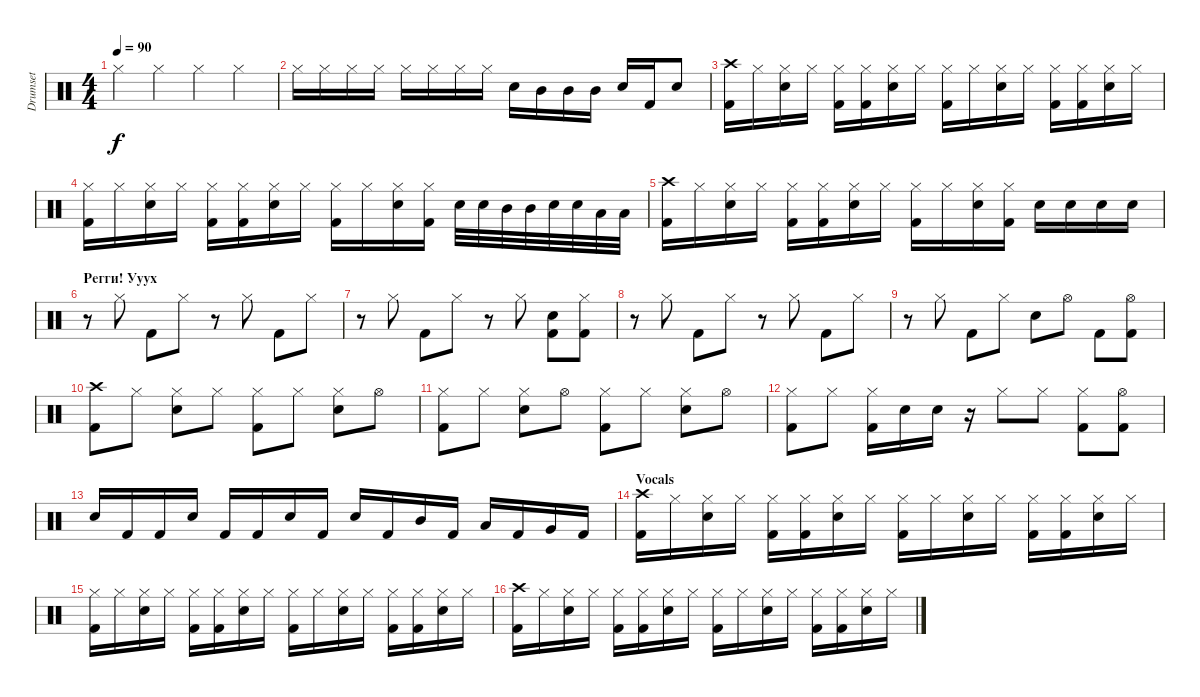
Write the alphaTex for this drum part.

\track ("Drumset" "Drumset") {instrument percussion}
\staff {score}
\articulation defaults
\ts (4 4)
\tempo 90
\clef neutral
\ks c "Hi-Hat (closed)".4{dy f} "Hi-Hat (closed)".4 "Hi-Hat (closed)".4 "Hi-Hat (closed)".4
|
"Hi-Hat (closed)".16 "Hi-Hat (closed)".16 "Hi-Hat (closed)".16 "Hi-Hat (closed)".16 "Hi-Hat (closed)".16 "Hi-Hat (closed)".16 "Hi-Hat (closed)".16 "Hi-Hat (closed)".16 "Electric Snare (hit)".16 "Mid Tom (hit)".16 "Mid Tom (hit)".16 "Mid Tom (hit)".16 "Electric Snare (hit)".16 "Kick (hit) 2".16 "Electric Snare (hit)".8 |
("Crash high (hit)" "Kick (hit) 2").16 "Hi-Hat (closed)".16 ("Hi-Hat (closed)" "Electric Snare (hit)").16 "Hi-Hat (closed)".16 ("Hi-Hat (closed)" "Kick (hit) 2").16 ("Hi-Hat (closed)" "Kick (hit) 2").16 ("Hi-Hat (closed)" "Electric Snare (hit)").16 "Hi-Hat (closed)".16 ("Hi-Hat (closed)" "Kick (hit) 2").16 "Hi-Hat (closed)".16 ("Hi-Hat (closed)" "Electric Snare (hit)").16 "Hi-Hat (closed)".16 ("Hi-Hat (closed)" "Kick (hit) 2").16 ("Hi-Hat (closed)" "Kick (hit) 2").16 ("Hi-Hat (closed)" "Electric Snare (hit)").16 "Hi-Hat (closed)".16 |
("Hi-Hat (closed)" "Kick (hit) 2").16 "Hi-Hat (closed)".16 ("Hi-Hat (closed)" "Electric Snare (hit)").16 "Hi-Hat (closed)".16 ("Hi-Hat (closed)" "Kick (hit) 2").16 ("Hi-Hat (closed)" "Kick (hit) 2").16 ("Hi-Hat (closed)" "Electric Snare (hit)").16 "Hi-Hat (closed)".16 ("Hi-Hat (closed)" "Kick (hit) 2").16 "Hi-Hat (closed)".16 ("Hi-Hat (closed)" "Electric Snare (hit)").16 ("Hi-Hat (closed)" "Kick (hit) 2").16 "Electric Snare (hit)".32 "Electric Snare (hit)".32 "Mid Tom (hit)".32 "Mid Tom (hit)".32 "Electric Snare (hit)".32 "Electric Snare (hit)".32 "Low Tom (hit)".32 "Low Tom (hit)".32 |
("Crash high (hit)" "Kick (hit) 2").16 "Hi-Hat (closed)".16 ("Hi-Hat (closed)" "Electric Snare (hit)").16 "Hi-Hat (closed)".16 ("Hi-Hat (closed)" "Kick (hit) 2").16 ("Hi-Hat (closed)" "Kick (hit) 2").16 ("Hi-Hat (closed)" "Electric Snare (hit)").16 "Hi-Hat (closed)".16 ("Hi-Hat (closed)" "Kick (hit) 2").16 "Hi-Hat (closed)".16 ("Hi-Hat (closed)" "Electric Snare (hit)").16 ("Hi-Hat (closed)" "Kick (hit) 2").16 "Electric Snare (hit)".16 "Electric Snare (hit)".16 "Electric Snare (hit)".16 "Electric Snare (hit)".16 |
\section ("" "Регги! Ууух")
r.8 "Hi-Hat (closed)".8 "Kick (hit) 2".8 "Hi-Hat (closed)".8 r.8 "Hi-Hat (closed)".8 "Kick (hit) 2".8 "Hi-Hat (closed)".8 |
r.8 "Hi-Hat (closed)".8 "Kick (hit) 2".8 "Hi-Hat (closed)".8 r.8 "Hi-Hat (closed)".8 ("Electric Snare (hit)" "Kick (hit) 2").8 ("Hi-Hat (closed)" "Kick (hit) 2").8 |
r.8 "Hi-Hat (closed)".8 "Kick (hit) 2".8 "Hi-Hat (closed)".8 r.8 "Hi-Hat (closed)".8 "Kick (hit) 2".8 "Hi-Hat (closed)".8 |
r.8 "Hi-Hat (closed)".8 "Kick (hit) 2".8 "Hi-Hat (closed)".8 "Electric Snare (hit)".8 "Hi-Hat (open)".8 "Kick (hit) 2".8 ("Hi-Hat (open)" "Kick (hit) 2").8 |
("Crash high (hit)" "Kick (hit) 2").8 "Hi-Hat (closed)".8 ("Hi-Hat (closed)" "Electric Snare (hit)").8 "Hi-Hat (closed)".8 ("Hi-Hat (closed)" "Kick (hit) 2").8 "Hi-Hat (closed)".8 ("Hi-Hat (closed)" "Electric Snare (hit)").8 "Hi-Hat (open)".8 |
("Hi-Hat (closed)" "Kick (hit) 2").8 "Hi-Hat (closed)".8 ("Hi-Hat (closed)" "Electric Snare (hit)").8 "Hi-Hat (open)".8 ("Hi-Hat (closed)" "Kick (hit) 2").8 "Hi-Hat (closed)".8 ("Hi-Hat (closed)" "Electric Snare (hit)").8 "Hi-Hat (open)".8 |
("Hi-Hat (closed)" "Kick (hit) 2").8 "Hi-Hat (closed)".8 ("Hi-Hat (closed)" "Kick (hit) 2").16 "Electric Snare (hit)".16 "Electric Snare (hit)".16 r.16 "Hi-Hat (closed)".8 "Hi-Hat (closed)".8 ("Hi-Hat (closed)" "Kick (hit) 2").8 ("Hi-Hat (open)" "Kick (hit) 2").8 |
"Electric Snare (hit)".16 "Kick (hit) 2".16 "Kick (hit) 2".16 "Electric Snare (hit)".16 "Kick (hit) 2".16 "Kick (hit) 2".16 "Electric Snare (hit)".16 "Kick (hit) 2".16 "Electric Snare (hit)".16 "Kick (hit) 2".16 "Mid Tom (hit)".16 "Kick (hit) 2".16 "Low Tom (hit)".16 "Kick (hit) 2".16 "Very Low Tom (hit)".16 "Kick (hit) 2".16 |
\section ("" "Vocals")
("Crash high (hit)" "Kick (hit) 2").16 "Hi-Hat (closed)".16 ("Hi-Hat (closed)" "Electric Snare (hit)").16 "Hi-Hat (closed)".16 ("Hi-Hat (closed)" "Kick (hit) 2").16 ("Hi-Hat (closed)" "Kick (hit) 2").16 ("Hi-Hat (closed)" "Electric Snare (hit)").16 "Hi-Hat (closed)".16 ("Hi-Hat (closed)" "Kick (hit) 2").16 "Hi-Hat (closed)".16 ("Hi-Hat (closed)" "Electric Snare (hit)").16 "Hi-Hat (closed)".16 ("Hi-Hat (closed)" "Kick (hit) 2").16 ("Hi-Hat (closed)" "Kick (hit) 2").16 ("Hi-Hat (closed)" "Electric Snare (hit)").16 "Hi-Hat (closed)".16 |
("Hi-Hat (closed)" "Kick (hit) 2").16 "Hi-Hat (closed)".16 ("Hi-Hat (closed)" "Electric Snare (hit)").16 "Hi-Hat (closed)".16 ("Hi-Hat (closed)" "Kick (hit) 2").16 ("Hi-Hat (closed)" "Kick (hit) 2").16 ("Hi-Hat (closed)" "Electric Snare (hit)").16 "Hi-Hat (closed)".16 ("Hi-Hat (closed)" "Kick (hit) 2").16 "Hi-Hat (closed)".16 ("Hi-Hat (closed)" "Electric Snare (hit)").16 "Hi-Hat (closed)".16 ("Hi-Hat (closed)" "Kick (hit) 2").16 ("Hi-Hat (closed)" "Kick (hit) 2").16 ("Hi-Hat (closed)" "Electric Snare (hit)").16 "Hi-Hat (closed)".16 |
("Crash high (hit)" "Kick (hit) 2").16 "Hi-Hat (closed)".16 ("Hi-Hat (closed)" "Electric Snare (hit)").16 "Hi-Hat (closed)".16 ("Hi-Hat (closed)" "Kick (hit) 2").16 ("Hi-Hat (closed)" "Kick (hit) 2").16 ("Hi-Hat (closed)" "Electric Snare (hit)").16 "Hi-Hat (closed)".16 ("Hi-Hat (closed)" "Kick (hit) 2").16 "Hi-Hat (closed)".16 ("Hi-Hat (closed)" "Electric Snare (hit)").16 "Hi-Hat (closed)".16 ("Hi-Hat (closed)" "Kick (hit) 2").16 ("Hi-Hat (closed)" "Kick (hit) 2").16 ("Hi-Hat (closed)" "Electric Snare (hit)").16 "Hi-Hat (closed)".16
